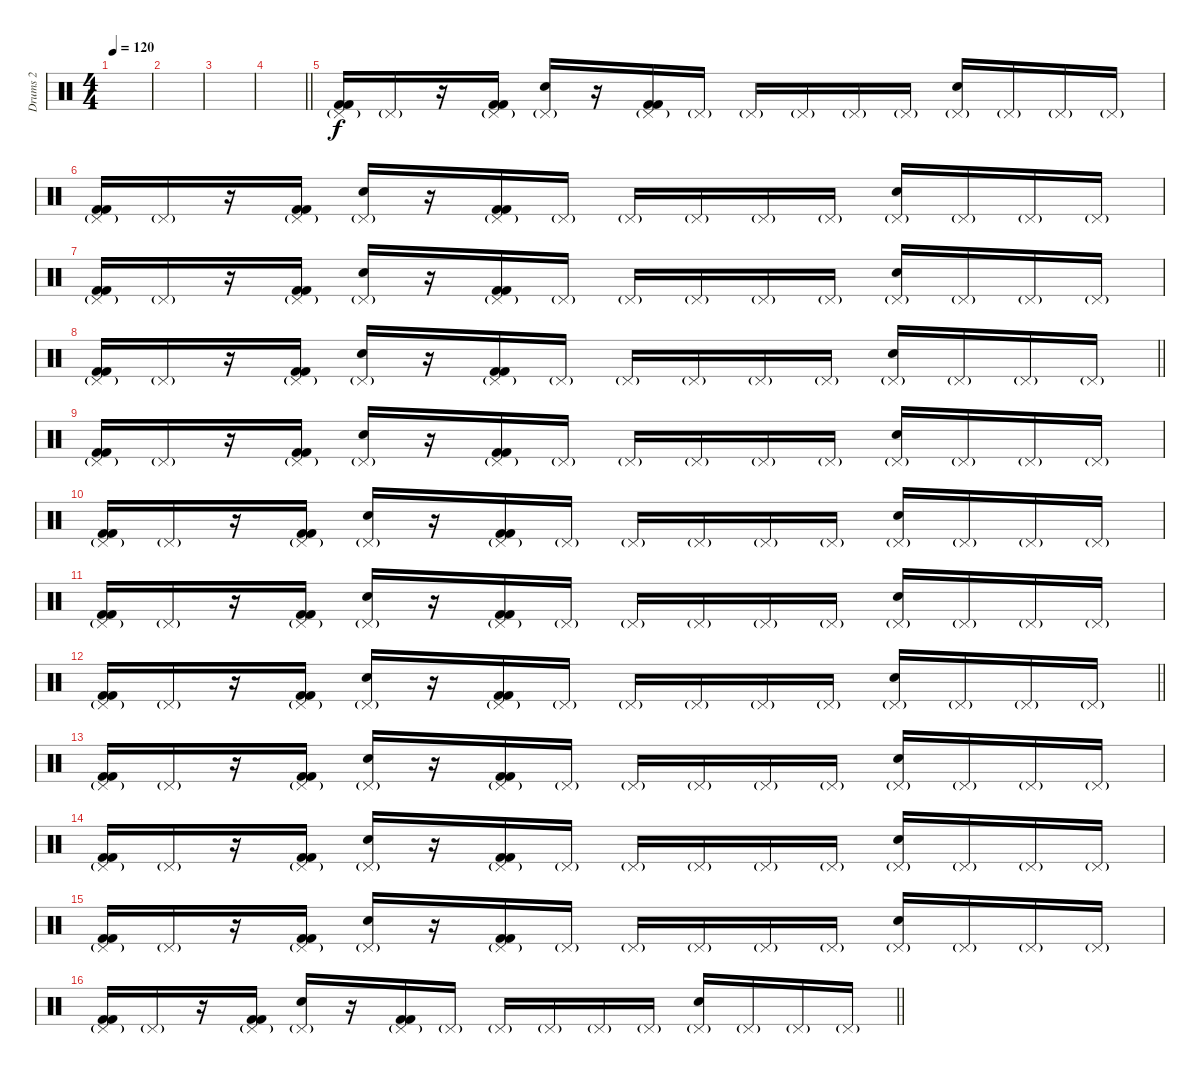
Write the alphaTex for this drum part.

\track ("Drums 2" "Drums 2") {instrument percussion}
\staff {score}
\articulation defaults
\ts (4 4)
\tempo 120
\clef neutral
\ks c
|
|
|
\barLineRight lightlight
|
("Pedal Hi-Hat (hit)"{g} "Kick (hit) 2" "Kick (hit) 2").16 "Pedal Hi-Hat (hit)"{g}.16 r.16 ("Pedal Hi-Hat (hit)"{g} "Kick (hit) 2" "Kick (hit) 2").16 ("Pedal Hi-Hat (hit)"{g} "Snare (hit) 2").16 r.16 ("Pedal Hi-Hat (hit)"{g} "Kick (hit) 2" "Kick (hit) 2").16 "Pedal Hi-Hat (hit)"{g}.16 "Pedal Hi-Hat (hit)"{g}.16 "Pedal Hi-Hat (hit)"{g}.16 "Pedal Hi-Hat (hit)"{g}.16 "Pedal Hi-Hat (hit)"{g}.16 ("Pedal Hi-Hat (hit)"{g} "Snare (hit) 2").16 "Pedal Hi-Hat (hit)"{g}.16 "Pedal Hi-Hat (hit)"{g}.16 "Pedal Hi-Hat (hit)"{g}.16 |
("Pedal Hi-Hat (hit)"{g} "Kick (hit) 2" "Kick (hit) 2").16 "Pedal Hi-Hat (hit)"{g}.16 r.16 ("Pedal Hi-Hat (hit)"{g} "Kick (hit) 2" "Kick (hit) 2").16 ("Pedal Hi-Hat (hit)"{g} "Snare (hit) 2").16 r.16 ("Pedal Hi-Hat (hit)"{g} "Kick (hit) 2" "Kick (hit) 2").16 "Pedal Hi-Hat (hit)"{g}.16 "Pedal Hi-Hat (hit)"{g}.16 "Pedal Hi-Hat (hit)"{g}.16 "Pedal Hi-Hat (hit)"{g}.16 "Pedal Hi-Hat (hit)"{g}.16 ("Pedal Hi-Hat (hit)"{g} "Snare (hit) 2").16 "Pedal Hi-Hat (hit)"{g}.16 "Pedal Hi-Hat (hit)"{g}.16 "Pedal Hi-Hat (hit)"{g}.16 |
("Pedal Hi-Hat (hit)"{g} "Kick (hit) 2" "Kick (hit) 2").16 "Pedal Hi-Hat (hit)"{g}.16 r.16 ("Pedal Hi-Hat (hit)"{g} "Kick (hit) 2" "Kick (hit) 2").16 ("Pedal Hi-Hat (hit)"{g} "Snare (hit) 2").16 r.16 ("Pedal Hi-Hat (hit)"{g} "Kick (hit) 2" "Kick (hit) 2").16 "Pedal Hi-Hat (hit)"{g}.16 "Pedal Hi-Hat (hit)"{g}.16 "Pedal Hi-Hat (hit)"{g}.16 "Pedal Hi-Hat (hit)"{g}.16 "Pedal Hi-Hat (hit)"{g}.16 ("Pedal Hi-Hat (hit)"{g} "Snare (hit) 2").16 "Pedal Hi-Hat (hit)"{g}.16 "Pedal Hi-Hat (hit)"{g}.16 "Pedal Hi-Hat (hit)"{g}.16 |
\barLineRight lightlight
("Pedal Hi-Hat (hit)"{g} "Kick (hit) 2" "Kick (hit) 2").16 "Pedal Hi-Hat (hit)"{g}.16 r.16 ("Pedal Hi-Hat (hit)"{g} "Kick (hit) 2" "Kick (hit) 2").16 ("Pedal Hi-Hat (hit)"{g} "Snare (hit) 2").16 r.16 ("Pedal Hi-Hat (hit)"{g} "Kick (hit) 2" "Kick (hit) 2").16 "Pedal Hi-Hat (hit)"{g}.16 "Pedal Hi-Hat (hit)"{g}.16 "Pedal Hi-Hat (hit)"{g}.16 "Pedal Hi-Hat (hit)"{g}.16 "Pedal Hi-Hat (hit)"{g}.16 ("Pedal Hi-Hat (hit)"{g} "Snare (hit) 2").16 "Pedal Hi-Hat (hit)"{g}.16 "Pedal Hi-Hat (hit)"{g}.16 "Pedal Hi-Hat (hit)"{g}.16 |
("Pedal Hi-Hat (hit)"{g} "Kick (hit) 2" "Kick (hit) 2").16 "Pedal Hi-Hat (hit)"{g}.16 r.16 ("Pedal Hi-Hat (hit)"{g} "Kick (hit) 2" "Kick (hit) 2").16 ("Pedal Hi-Hat (hit)"{g} "Snare (hit) 2").16 r.16 ("Pedal Hi-Hat (hit)"{g} "Kick (hit) 2" "Kick (hit) 2").16 "Pedal Hi-Hat (hit)"{g}.16 "Pedal Hi-Hat (hit)"{g}.16 "Pedal Hi-Hat (hit)"{g}.16 "Pedal Hi-Hat (hit)"{g}.16 "Pedal Hi-Hat (hit)"{g}.16 ("Pedal Hi-Hat (hit)"{g} "Snare (hit) 2").16 "Pedal Hi-Hat (hit)"{g}.16 "Pedal Hi-Hat (hit)"{g}.16 "Pedal Hi-Hat (hit)"{g}.16 |
("Pedal Hi-Hat (hit)"{g} "Kick (hit) 2" "Kick (hit) 2").16 "Pedal Hi-Hat (hit)"{g}.16 r.16 ("Pedal Hi-Hat (hit)"{g} "Kick (hit) 2" "Kick (hit) 2").16 ("Pedal Hi-Hat (hit)"{g} "Snare (hit) 2").16 r.16 ("Pedal Hi-Hat (hit)"{g} "Kick (hit) 2" "Kick (hit) 2").16 "Pedal Hi-Hat (hit)"{g}.16 "Pedal Hi-Hat (hit)"{g}.16 "Pedal Hi-Hat (hit)"{g}.16 "Pedal Hi-Hat (hit)"{g}.16 "Pedal Hi-Hat (hit)"{g}.16 ("Pedal Hi-Hat (hit)"{g} "Snare (hit) 2").16 "Pedal Hi-Hat (hit)"{g}.16 "Pedal Hi-Hat (hit)"{g}.16 "Pedal Hi-Hat (hit)"{g}.16 |
("Pedal Hi-Hat (hit)"{g} "Kick (hit) 2" "Kick (hit) 2").16 "Pedal Hi-Hat (hit)"{g}.16 r.16 ("Pedal Hi-Hat (hit)"{g} "Kick (hit) 2" "Kick (hit) 2").16 ("Pedal Hi-Hat (hit)"{g} "Snare (hit) 2").16 r.16 ("Pedal Hi-Hat (hit)"{g} "Kick (hit) 2" "Kick (hit) 2").16 "Pedal Hi-Hat (hit)"{g}.16 "Pedal Hi-Hat (hit)"{g}.16 "Pedal Hi-Hat (hit)"{g}.16 "Pedal Hi-Hat (hit)"{g}.16 "Pedal Hi-Hat (hit)"{g}.16 ("Pedal Hi-Hat (hit)"{g} "Snare (hit) 2").16 "Pedal Hi-Hat (hit)"{g}.16 "Pedal Hi-Hat (hit)"{g}.16 "Pedal Hi-Hat (hit)"{g}.16 |
\barLineRight lightlight
("Pedal Hi-Hat (hit)"{g} "Kick (hit) 2" "Kick (hit) 2").16 "Pedal Hi-Hat (hit)"{g}.16 r.16 ("Pedal Hi-Hat (hit)"{g} "Kick (hit) 2" "Kick (hit) 2").16 ("Pedal Hi-Hat (hit)"{g} "Snare (hit) 2").16 r.16 ("Pedal Hi-Hat (hit)"{g} "Kick (hit) 2" "Kick (hit) 2").16 "Pedal Hi-Hat (hit)"{g}.16 "Pedal Hi-Hat (hit)"{g}.16 "Pedal Hi-Hat (hit)"{g}.16 "Pedal Hi-Hat (hit)"{g}.16 "Pedal Hi-Hat (hit)"{g}.16 ("Pedal Hi-Hat (hit)"{g} "Snare (hit) 2").16 "Pedal Hi-Hat (hit)"{g}.16 "Pedal Hi-Hat (hit)"{g}.16 "Pedal Hi-Hat (hit)"{g}.16 |
("Pedal Hi-Hat (hit)"{g} "Kick (hit) 2" "Kick (hit) 2").16 "Pedal Hi-Hat (hit)"{g}.16 r.16 ("Pedal Hi-Hat (hit)"{g} "Kick (hit) 2" "Kick (hit) 2").16 ("Pedal Hi-Hat (hit)"{g} "Snare (hit) 2").16 r.16 ("Pedal Hi-Hat (hit)"{g} "Kick (hit) 2" "Kick (hit) 2").16 "Pedal Hi-Hat (hit)"{g}.16 "Pedal Hi-Hat (hit)"{g}.16 "Pedal Hi-Hat (hit)"{g}.16 "Pedal Hi-Hat (hit)"{g}.16 "Pedal Hi-Hat (hit)"{g}.16 ("Pedal Hi-Hat (hit)"{g} "Snare (hit) 2").16 "Pedal Hi-Hat (hit)"{g}.16 "Pedal Hi-Hat (hit)"{g}.16 "Pedal Hi-Hat (hit)"{g}.16 |
("Pedal Hi-Hat (hit)"{g} "Kick (hit) 2" "Kick (hit) 2").16 "Pedal Hi-Hat (hit)"{g}.16 r.16 ("Pedal Hi-Hat (hit)"{g} "Kick (hit) 2" "Kick (hit) 2").16 ("Pedal Hi-Hat (hit)"{g} "Snare (hit) 2").16 r.16 ("Pedal Hi-Hat (hit)"{g} "Kick (hit) 2" "Kick (hit) 2").16 "Pedal Hi-Hat (hit)"{g}.16 "Pedal Hi-Hat (hit)"{g}.16 "Pedal Hi-Hat (hit)"{g}.16 "Pedal Hi-Hat (hit)"{g}.16 "Pedal Hi-Hat (hit)"{g}.16 ("Pedal Hi-Hat (hit)"{g} "Snare (hit) 2").16 "Pedal Hi-Hat (hit)"{g}.16 "Pedal Hi-Hat (hit)"{g}.16 "Pedal Hi-Hat (hit)"{g}.16 |
("Pedal Hi-Hat (hit)"{g} "Kick (hit) 2" "Kick (hit) 2").16 "Pedal Hi-Hat (hit)"{g}.16 r.16 ("Pedal Hi-Hat (hit)"{g} "Kick (hit) 2" "Kick (hit) 2").16 ("Pedal Hi-Hat (hit)"{g} "Snare (hit) 2").16 r.16 ("Pedal Hi-Hat (hit)"{g} "Kick (hit) 2" "Kick (hit) 2").16 "Pedal Hi-Hat (hit)"{g}.16 "Pedal Hi-Hat (hit)"{g}.16 "Pedal Hi-Hat (hit)"{g}.16 "Pedal Hi-Hat (hit)"{g}.16 "Pedal Hi-Hat (hit)"{g}.16 ("Pedal Hi-Hat (hit)"{g} "Snare (hit) 2").16 "Pedal Hi-Hat (hit)"{g}.16 "Pedal Hi-Hat (hit)"{g}.16 "Pedal Hi-Hat (hit)"{g}.16 |
\barLineRight lightlight
("Pedal Hi-Hat (hit)"{g} "Kick (hit) 2" "Kick (hit) 2").16 "Pedal Hi-Hat (hit)"{g}.16 r.16 ("Pedal Hi-Hat (hit)"{g} "Kick (hit) 2" "Kick (hit) 2").16 ("Pedal Hi-Hat (hit)"{g} "Snare (hit) 2").16 r.16 ("Pedal Hi-Hat (hit)"{g} "Kick (hit) 2" "Kick (hit) 2").16 "Pedal Hi-Hat (hit)"{g}.16 "Pedal Hi-Hat (hit)"{g}.16 "Pedal Hi-Hat (hit)"{g}.16 "Pedal Hi-Hat (hit)"{g}.16 "Pedal Hi-Hat (hit)"{g}.16 ("Pedal Hi-Hat (hit)"{g} "Snare (hit) 2").16 "Pedal Hi-Hat (hit)"{g}.16 "Pedal Hi-Hat (hit)"{g}.16 "Pedal Hi-Hat (hit)"{g}.16
